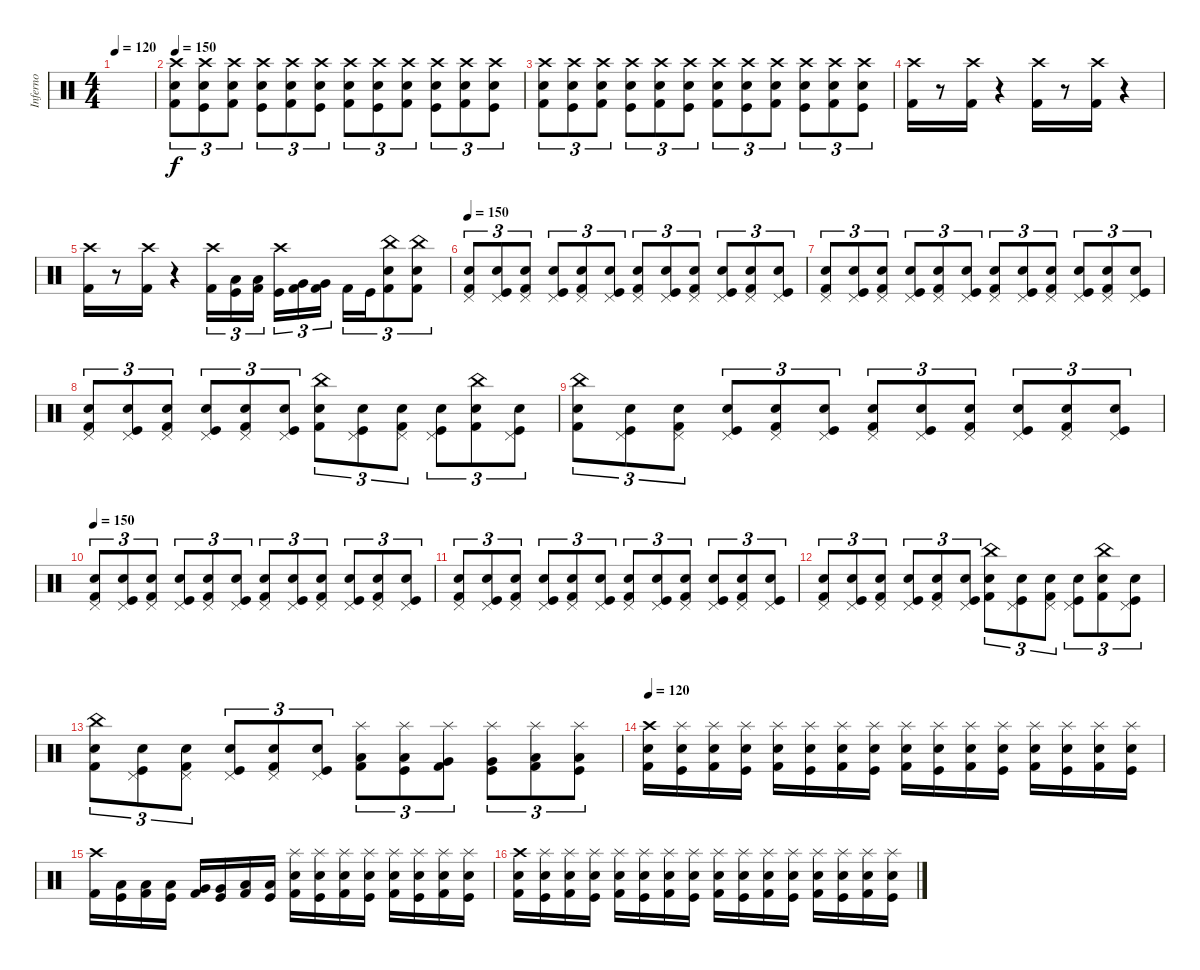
\track ("Inferno" "Inferno") {instrument percussion}
\staff {score}
\articulation defaults
\ts (4 4)
\tempo 120
\clef neutral
\ks c
|
\tempo 150
("Crash high (hit)" "Electric Snare (hit)" "Kick (hit) 2").8{tu (3 2)} ("Crash high (hit)" "Electric Snare (hit)" "Kick (hit)").8{tu (3 2)} ("Crash high (hit)" "Electric Snare (hit)" "Kick (hit) 2").8{tu (3 2)} ("Crash high (hit)" "Electric Snare (hit)" "Kick (hit)").8{tu (3 2)} ("Crash high (hit)" "Electric Snare (hit)" "Kick (hit) 2").8{tu (3 2)} ("Crash high (hit)" "Electric Snare (hit)" "Kick (hit)").8{tu (3 2)} ("Crash high (hit)" "Electric Snare (hit)" "Kick (hit) 2").8{tu (3 2)} ("Crash high (hit)" "Electric Snare (hit)" "Kick (hit)").8{tu (3 2)} ("Crash high (hit)" "Electric Snare (hit)" "Kick (hit) 2").8{tu (3 2)} ("Crash high (hit)" "Electric Snare (hit)" "Kick (hit)").8{tu (3 2)} ("Crash high (hit)" "Electric Snare (hit)" "Kick (hit) 2").8{tu (3 2)} ("Crash high (hit)" "Electric Snare (hit)" "Kick (hit)").8{tu (3 2)} |
("Crash high (hit)" "Electric Snare (hit)" "Kick (hit) 2").8{tu (3 2)} ("Crash high (hit)" "Electric Snare (hit)" "Kick (hit)").8{tu (3 2)} ("Crash high (hit)" "Electric Snare (hit)" "Kick (hit) 2").8{tu (3 2)} ("Crash high (hit)" "Electric Snare (hit)" "Kick (hit)").8{tu (3 2)} ("Crash high (hit)" "Electric Snare (hit)" "Kick (hit) 2").8{tu (3 2)} ("Crash high (hit)" "Electric Snare (hit)" "Kick (hit)").8{tu (3 2)} ("Crash high (hit)" "Electric Snare (hit)" "Kick (hit) 2").8{tu (3 2)} ("Crash high (hit)" "Electric Snare (hit)" "Kick (hit)").8{tu (3 2)} ("Crash high (hit)" "Electric Snare (hit)" "Kick (hit) 2").8{tu (3 2)} ("Crash high (hit)" "Electric Snare (hit)" "Kick (hit)").8{tu (3 2)} ("Crash high (hit)" "Electric Snare (hit)" "Kick (hit) 2").8{tu (3 2)} ("Crash high (hit)" "Electric Snare (hit)" "Kick (hit)").8{tu (3 2)} |
("Crash high (hit)" "Kick (hit) 2").16 r.8 ("Crash high (hit)" "Kick (hit) 2").16 r.4 ("Crash high (hit)" "Kick (hit) 2").16 r.8 ("Crash high (hit)" "Kick (hit) 2").16 r.4 |
("Crash high (hit)" "Kick (hit) 2").16 r.8 ("Crash high (hit)" "Kick (hit) 2").16 r.4 ("Crash high (hit)" "Kick (hit) 2").16{tu (3 2)} ("Low Tom (hit)" "Kick (hit)").16{tu (3 2)} ("Low Tom (hit)" "Kick (hit) 2").16{tu (3 2)} ("Crash high (hit)" "Kick (hit)").16{tu (3 2)} ("Very Low Tom (hit)" "Kick (hit) 2").16{tu (3 2)} ("Very Low Tom (hit)" "Kick (hit) 2").16{tu (3 2)} "Kick (hit) 2".16{tu (3 2)} "Kick (hit)".16{tu (3 2)} ("China (hit)" "Electric Snare (hit)" "Kick (hit) 2").8{tu (3 2)} ("China (hit)" "Electric Snare (hit)" "Kick (hit) 2").8{tu (3 2)} |
\tempo 150
("Pedal Hi-Hat (hit)" "Electric Snare (hit)" "Kick (hit) 2").8{tu (3 2)} ("Pedal Hi-Hat (hit)" "Electric Snare (hit)" "Kick (hit)").8{tu (3 2)} ("Pedal Hi-Hat (hit)" "Electric Snare (hit)" "Kick (hit) 2").8{tu (3 2)} ("Pedal Hi-Hat (hit)" "Electric Snare (hit)" "Kick (hit)").8{tu (3 2)} ("Pedal Hi-Hat (hit)" "Electric Snare (hit)" "Kick (hit) 2").8{tu (3 2)} ("Pedal Hi-Hat (hit)" "Electric Snare (hit)" "Kick (hit)").8{tu (3 2)} ("Pedal Hi-Hat (hit)" "Electric Snare (hit)" "Kick (hit) 2").8{tu (3 2)} ("Pedal Hi-Hat (hit)" "Electric Snare (hit)" "Kick (hit)").8{tu (3 2)} ("Pedal Hi-Hat (hit)" "Electric Snare (hit)" "Kick (hit) 2").8{tu (3 2)} ("Pedal Hi-Hat (hit)" "Electric Snare (hit)" "Kick (hit)").8{tu (3 2)} ("Pedal Hi-Hat (hit)" "Electric Snare (hit)" "Kick (hit) 2").8{tu (3 2)} ("Pedal Hi-Hat (hit)" "Electric Snare (hit)" "Kick (hit)").8{tu (3 2)} |
("Pedal Hi-Hat (hit)" "Electric Snare (hit)" "Kick (hit) 2").8{tu (3 2)} ("Pedal Hi-Hat (hit)" "Electric Snare (hit)" "Kick (hit)").8{tu (3 2)} ("Pedal Hi-Hat (hit)" "Electric Snare (hit)" "Kick (hit) 2").8{tu (3 2)} ("Pedal Hi-Hat (hit)" "Electric Snare (hit)" "Kick (hit)").8{tu (3 2)} ("Pedal Hi-Hat (hit)" "Electric Snare (hit)" "Kick (hit) 2").8{tu (3 2)} ("Pedal Hi-Hat (hit)" "Electric Snare (hit)" "Kick (hit)").8{tu (3 2)} ("Pedal Hi-Hat (hit)" "Electric Snare (hit)" "Kick (hit) 2").8{tu (3 2)} ("Pedal Hi-Hat (hit)" "Electric Snare (hit)" "Kick (hit)").8{tu (3 2)} ("Pedal Hi-Hat (hit)" "Electric Snare (hit)" "Kick (hit) 2").8{tu (3 2)} ("Pedal Hi-Hat (hit)" "Electric Snare (hit)" "Kick (hit)").8{tu (3 2)} ("Pedal Hi-Hat (hit)" "Electric Snare (hit)" "Kick (hit) 2").8{tu (3 2)} ("Pedal Hi-Hat (hit)" "Electric Snare (hit)" "Kick (hit)").8{tu (3 2)} |
("Pedal Hi-Hat (hit)" "Electric Snare (hit)" "Kick (hit) 2").8{tu (3 2)} ("Pedal Hi-Hat (hit)" "Electric Snare (hit)" "Kick (hit)").8{tu (3 2)} ("Pedal Hi-Hat (hit)" "Electric Snare (hit)" "Kick (hit) 2").8{tu (3 2)} ("Pedal Hi-Hat (hit)" "Electric Snare (hit)" "Kick (hit)").8{tu (3 2)} ("Pedal Hi-Hat (hit)" "Electric Snare (hit)" "Kick (hit) 2").8{tu (3 2)} ("Pedal Hi-Hat (hit)" "Electric Snare (hit)" "Kick (hit)").8{tu (3 2)} ("China (hit)" "Electric Snare (hit)" "Kick (hit) 2").8{tu (3 2)} ("Pedal Hi-Hat (hit)" "Electric Snare (hit)" "Kick (hit)").8{tu (3 2)} ("Pedal Hi-Hat (hit)" "Electric Snare (hit)" "Kick (hit) 2").8{tu (3 2)} ("Pedal Hi-Hat (hit)" "Electric Snare (hit)" "Kick (hit)").8{tu (3 2)} ("China (hit)" "Electric Snare (hit)" "Kick (hit) 2").8{tu (3 2)} ("Pedal Hi-Hat (hit)" "Electric Snare (hit)" "Kick (hit)").8{tu (3 2)} |
("China (hit)" "Electric Snare (hit)" "Kick (hit) 2").8{tu (3 2)} ("Pedal Hi-Hat (hit)" "Electric Snare (hit)" "Kick (hit)").8{tu (3 2)} ("Pedal Hi-Hat (hit)" "Electric Snare (hit)" "Kick (hit) 2").8{tu (3 2)} ("Pedal Hi-Hat (hit)" "Electric Snare (hit)" "Kick (hit)").8{tu (3 2)} ("Pedal Hi-Hat (hit)" "Electric Snare (hit)" "Kick (hit) 2").8{tu (3 2)} ("Pedal Hi-Hat (hit)" "Electric Snare (hit)" "Kick (hit)").8{tu (3 2)} ("Pedal Hi-Hat (hit)" "Electric Snare (hit)" "Kick (hit) 2").8{tu (3 2)} ("Pedal Hi-Hat (hit)" "Electric Snare (hit)" "Kick (hit)").8{tu (3 2)} ("Pedal Hi-Hat (hit)" "Electric Snare (hit)" "Kick (hit) 2").8{tu (3 2)} ("Pedal Hi-Hat (hit)" "Electric Snare (hit)" "Kick (hit)").8{tu (3 2)} ("Pedal Hi-Hat (hit)" "Electric Snare (hit)" "Kick (hit) 2").8{tu (3 2)} ("Pedal Hi-Hat (hit)" "Electric Snare (hit)" "Kick (hit)").8{tu (3 2)} |
\tempo 150
("Pedal Hi-Hat (hit)" "Electric Snare (hit)" "Kick (hit) 2").8{tu (3 2)} ("Pedal Hi-Hat (hit)" "Electric Snare (hit)" "Kick (hit)").8{tu (3 2)} ("Pedal Hi-Hat (hit)" "Electric Snare (hit)" "Kick (hit) 2").8{tu (3 2)} ("Pedal Hi-Hat (hit)" "Electric Snare (hit)" "Kick (hit)").8{tu (3 2)} ("Pedal Hi-Hat (hit)" "Electric Snare (hit)" "Kick (hit) 2").8{tu (3 2)} ("Pedal Hi-Hat (hit)" "Electric Snare (hit)" "Kick (hit)").8{tu (3 2)} ("Pedal Hi-Hat (hit)" "Electric Snare (hit)" "Kick (hit) 2").8{tu (3 2)} ("Pedal Hi-Hat (hit)" "Electric Snare (hit)" "Kick (hit)").8{tu (3 2)} ("Pedal Hi-Hat (hit)" "Electric Snare (hit)" "Kick (hit) 2").8{tu (3 2)} ("Pedal Hi-Hat (hit)" "Electric Snare (hit)" "Kick (hit)").8{tu (3 2)} ("Pedal Hi-Hat (hit)" "Electric Snare (hit)" "Kick (hit) 2").8{tu (3 2)} ("Pedal Hi-Hat (hit)" "Electric Snare (hit)" "Kick (hit)").8{tu (3 2)} |
("Pedal Hi-Hat (hit)" "Electric Snare (hit)" "Kick (hit) 2").8{tu (3 2)} ("Pedal Hi-Hat (hit)" "Electric Snare (hit)" "Kick (hit)").8{tu (3 2)} ("Pedal Hi-Hat (hit)" "Electric Snare (hit)" "Kick (hit) 2").8{tu (3 2)} ("Pedal Hi-Hat (hit)" "Electric Snare (hit)" "Kick (hit)").8{tu (3 2)} ("Pedal Hi-Hat (hit)" "Electric Snare (hit)" "Kick (hit) 2").8{tu (3 2)} ("Pedal Hi-Hat (hit)" "Electric Snare (hit)" "Kick (hit)").8{tu (3 2)} ("Pedal Hi-Hat (hit)" "Electric Snare (hit)" "Kick (hit) 2").8{tu (3 2)} ("Pedal Hi-Hat (hit)" "Electric Snare (hit)" "Kick (hit)").8{tu (3 2)} ("Pedal Hi-Hat (hit)" "Electric Snare (hit)" "Kick (hit) 2").8{tu (3 2)} ("Pedal Hi-Hat (hit)" "Electric Snare (hit)" "Kick (hit)").8{tu (3 2)} ("Pedal Hi-Hat (hit)" "Electric Snare (hit)" "Kick (hit) 2").8{tu (3 2)} ("Pedal Hi-Hat (hit)" "Electric Snare (hit)" "Kick (hit)").8{tu (3 2)} |
("Pedal Hi-Hat (hit)" "Electric Snare (hit)" "Kick (hit) 2").8{tu (3 2)} ("Pedal Hi-Hat (hit)" "Electric Snare (hit)" "Kick (hit)").8{tu (3 2)} ("Pedal Hi-Hat (hit)" "Electric Snare (hit)" "Kick (hit) 2").8{tu (3 2)} ("Pedal Hi-Hat (hit)" "Electric Snare (hit)" "Kick (hit)").8{tu (3 2)} ("Pedal Hi-Hat (hit)" "Electric Snare (hit)" "Kick (hit) 2").8{tu (3 2)} ("Pedal Hi-Hat (hit)" "Electric Snare (hit)" "Kick (hit)").8{tu (3 2)} ("China (hit)" "Electric Snare (hit)" "Kick (hit) 2").8{tu (3 2)} ("Pedal Hi-Hat (hit)" "Electric Snare (hit)" "Kick (hit)").8{tu (3 2)} ("Pedal Hi-Hat (hit)" "Electric Snare (hit)" "Kick (hit) 2").8{tu (3 2)} ("Pedal Hi-Hat (hit)" "Electric Snare (hit)" "Kick (hit)").8{tu (3 2)} ("China (hit)" "Electric Snare (hit)" "Kick (hit) 2").8{tu (3 2)} ("Pedal Hi-Hat (hit)" "Electric Snare (hit)" "Kick (hit)").8{tu (3 2)} |
("China (hit)" "Electric Snare (hit)" "Kick (hit) 2").8{tu (3 2)} ("Pedal Hi-Hat (hit)" "Electric Snare (hit)" "Kick (hit)").8{tu (3 2)} ("Pedal Hi-Hat (hit)" "Electric Snare (hit)" "Kick (hit) 2").8{tu (3 2)} ("Pedal Hi-Hat (hit)" "Electric Snare (hit)" "Kick (hit)").8{tu (3 2)} ("Pedal Hi-Hat (hit)" "Electric Snare (hit)" "Kick (hit) 2").8{tu (3 2)} ("Pedal Hi-Hat (hit)" "Electric Snare (hit)" "Kick (hit)").8{tu (3 2)} ("Splash (hit)" "Low Tom (hit)" "Kick (hit) 2").8{tu (3 2)} ("Splash (hit)" "Low Tom (hit)" "Kick (hit)").8{tu (3 2)} ("Splash (hit)" "Very Low Tom (hit)" "Kick (hit) 2").8{tu (3 2)} ("Splash (hit)" "Very Low Tom (hit)" "Kick (hit)").8{tu (3 2)} ("Splash (hit)" "Low Floor Tom (hit)" "Kick (hit) 2").8{tu (3 2)} ("Splash (hit)" "Low Floor Tom (hit)" "Kick (hit)").8{tu (3 2)} |
\tempo 120
("Crash high (hit)" "Electric Snare (hit)" "Kick (hit) 2").16 ("Splash (hit)" "Electric Snare (hit)" "Kick (hit)").16 ("Splash (hit)" "Electric Snare (hit)" "Kick (hit) 2").16 ("Splash (hit)" "Electric Snare (hit)" "Kick (hit)").16 ("Splash (hit)" "Electric Snare (hit)" "Kick (hit) 2").16 ("Splash (hit)" "Electric Snare (hit)" "Kick (hit)").16 ("Splash (hit)" "Electric Snare (hit)" "Kick (hit) 2").16 ("Splash (hit)" "Electric Snare (hit)" "Kick (hit)").16 ("Splash (hit)" "Electric Snare (hit)" "Kick (hit) 2").16 ("Splash (hit)" "Electric Snare (hit)" "Kick (hit)").16 ("Splash (hit)" "Electric Snare (hit)" "Kick (hit) 2").16 ("Splash (hit)" "Electric Snare (hit)" "Kick (hit)").16 ("Splash (hit)" "Electric Snare (hit)" "Kick (hit) 2").16 ("Splash (hit)" "Electric Snare (hit)" "Kick (hit)").16 ("Splash (hit)" "Electric Snare (hit)" "Kick (hit) 2").16 ("Splash (hit)" "Electric Snare (hit)" "Kick (hit)").16 |
("Crash high (hit)" "Kick (hit) 2").16 ("Low Tom (hit)" "Kick (hit)").16 ("Low Tom (hit)" "Kick (hit) 2").16 ("Low Tom (hit)" "Kick (hit)").16 ("Very Low Tom (hit)" "Kick (hit) 2").16 ("Very Low Tom (hit)" "Kick (hit)").16 ("Low Floor Tom (hit)" "Kick (hit) 2").16 ("Low Floor Tom (hit)" "Kick (hit)").16 ("Splash (hit)" "Electric Snare (hit)" "Kick (hit) 2").16 ("Splash (hit)" "Electric Snare (hit)" "Kick (hit)").16 ("Splash (hit)" "Electric Snare (hit)" "Kick (hit) 2").16 ("Splash (hit)" "Electric Snare (hit)" "Kick (hit)").16 ("Splash (hit)" "Electric Snare (hit)" "Kick (hit) 2").16 ("Splash (hit)" "Electric Snare (hit)" "Kick (hit)").16 ("Splash (hit)" "Electric Snare (hit)" "Kick (hit) 2").16 ("Splash (hit)" "Electric Snare (hit)" "Kick (hit)").16 |
("Crash high (hit)" "Electric Snare (hit)" "Kick (hit) 2").16 ("Splash (hit)" "Electric Snare (hit)" "Kick (hit)").16 ("Splash (hit)" "Electric Snare (hit)" "Kick (hit) 2").16 ("Splash (hit)" "Electric Snare (hit)" "Kick (hit)").16 ("Splash (hit)" "Electric Snare (hit)" "Kick (hit) 2").16 ("Splash (hit)" "Electric Snare (hit)" "Kick (hit)").16 ("Splash (hit)" "Electric Snare (hit)" "Kick (hit) 2").16 ("Splash (hit)" "Electric Snare (hit)" "Kick (hit)").16 ("Splash (hit)" "Electric Snare (hit)" "Kick (hit) 2").16 ("Splash (hit)" "Electric Snare (hit)" "Kick (hit)").16 ("Splash (hit)" "Electric Snare (hit)" "Kick (hit) 2").16 ("Splash (hit)" "Electric Snare (hit)" "Kick (hit)").16 ("Splash (hit)" "Electric Snare (hit)" "Kick (hit) 2").16 ("Splash (hit)" "Electric Snare (hit)" "Kick (hit)").16 ("Splash (hit)" "Electric Snare (hit)" "Kick (hit) 2").16 ("Splash (hit)" "Electric Snare (hit)" "Kick (hit)").16
